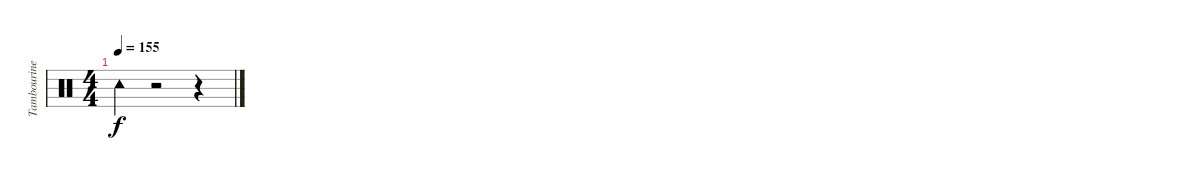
\track ("Tambourine" "Tambourine") {instrument percussion}
\staff {score}
\articulation defaults
\ts (4 4)
\tempo 155
\clef neutral
\ks c "Tambourine (hit)".4{dy f}
r.2 r.4
